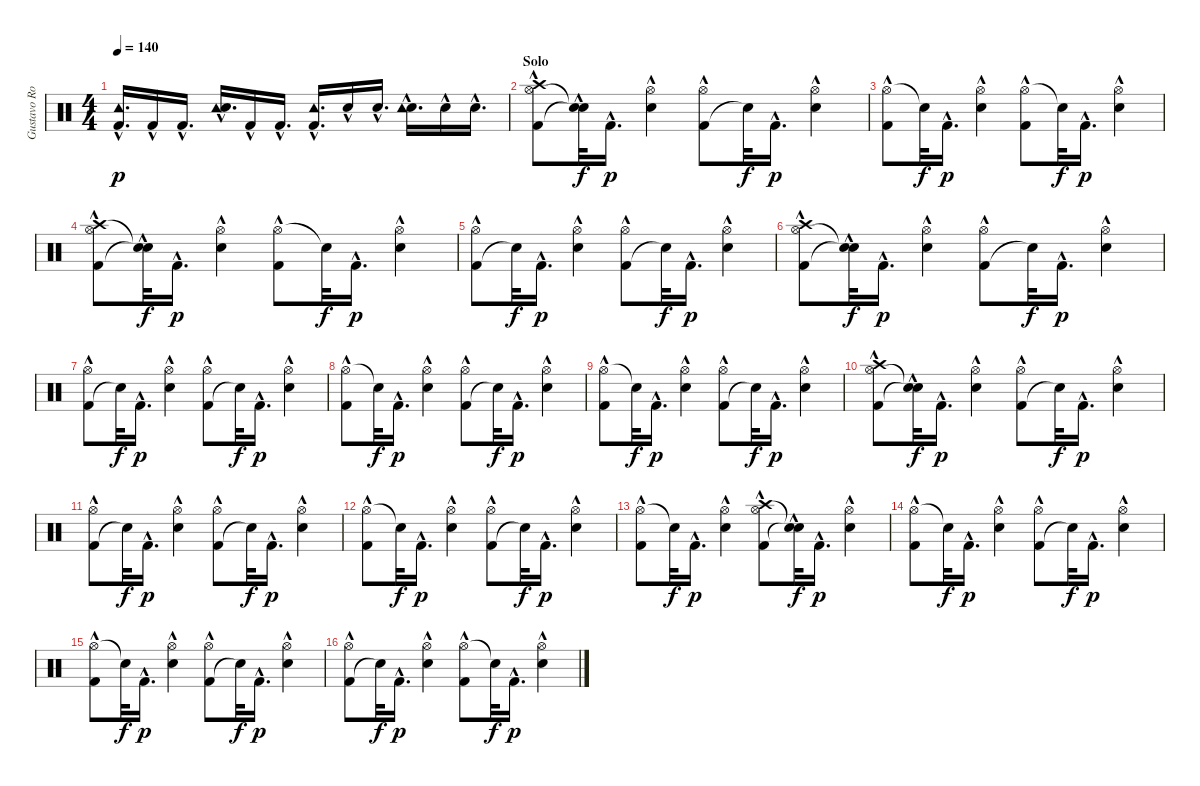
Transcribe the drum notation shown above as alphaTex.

\track ("Gustavo Rowek" "Gustavo Ro") {instrument percussion}
\staff {score}
\articulation defaults
\ts (4 4)
\tempo 140
\clef neutral
\ks c
("Tambourine (hit)" "Kick (hit) 2"{hac}).16{d dy p} "Kick (hit) 2"{hac}.16 "Kick (hit) 2"{hac}.16{d} ("Tambourine (hit)" "Snare (hit) 2"{hac}).16{d} "Kick (hit) 2"{hac}.16 "Kick (hit) 2"{hac}.16{d} ("Tambourine (hit)" "Kick (hit) 2"{hac}).16{d} "Snare (hit) 2"{hac}.16 "Snare (hit) 2"{hac}.16{d} ("Snare (hit) 2"{hac} "Tambourine (hit)").16{d} "Snare (hit) 2"{hac}.16 "Snare (hit) 2"{hac}.16{d} |
\section ("" "Solo")
("Hi-Hat (open)" "Kick (hit) 2"{hac} "Crash high (hit)").8 ("Snare (hit)"{t} "Snare (hit)"{hac t}).32{dy f} "Kick (hit) 2"{hac}.16{d dy p} ("Snare (hit) 2"{hac} "Hi-Hat (open)").4 ("Kick (hit) 2"{hac} "Hi-Hat (open)").8 "Snare (hit)"{t}.32{dy f} "Kick (hit) 2"{hac}.16{d dy p} ("Hi-Hat (open)" "Snare (hit) 2"{hac}).4 |
("Hi-Hat (open)" "Kick (hit) 2"{hac}).8 "Snare (hit)"{t}.32{dy f} "Kick (hit) 2"{hac}.16{d dy p} ("Snare (hit) 2"{hac} "Hi-Hat (open)").4 ("Hi-Hat (open)" "Kick (hit) 2"{hac}).8 "Snare (hit)"{t}.32{dy f} "Kick (hit) 2"{hac}.16{d dy p} ("Hi-Hat (open)" "Snare (hit) 2"{hac}).4 |
("Crash high (hit)" "Kick (hit) 2"{hac} "Hi-Hat (open)").8 ("Snare (hit)"{hac t} "Snare (hit)"{t}).32{dy f} "Kick (hit) 2"{hac}.16{d dy p} ("Snare (hit) 2"{hac} "Hi-Hat (open)").4 ("Hi-Hat (open)" "Kick (hit) 2"{hac}).8 "Snare (hit)"{t}.32{dy f} "Kick (hit) 2"{hac}.16{d dy p} ("Hi-Hat (open)" "Snare (hit) 2"{hac}).4 |
("Kick (hit) 2"{hac} "Hi-Hat (open)").8 "Snare (hit)"{t}.32{dy f} "Kick (hit) 2"{hac}.16{d dy p} ("Snare (hit) 2"{hac} "Hi-Hat (open)").4 ("Kick (hit) 2"{hac} "Hi-Hat (open)").8 "Snare (hit)"{t}.32{dy f} "Kick (hit) 2"{hac}.16{d dy p} ("Snare (hit) 2"{hac} "Hi-Hat (open)").4 |
("Kick (hit) 2"{hac} "Hi-Hat (open)" "Crash high (hit)").8 ("Snare (hit)"{t} "Snare (hit)"{hac t}).32{dy f} "Kick (hit) 2"{hac}.16{d dy p} ("Hi-Hat (open)" "Snare (hit) 2"{hac}).4 ("Kick (hit) 2"{hac} "Hi-Hat (open)").8 "Snare (hit)"{t}.32{dy f} "Kick (hit) 2"{hac}.16{d dy p} ("Snare (hit) 2"{hac} "Hi-Hat (open)").4 |
("Kick (hit) 2"{hac} "Hi-Hat (open)").8 "Snare (hit)"{t}.32{dy f} "Kick (hit) 2"{hac}.16{d dy p} ("Hi-Hat (open)" "Snare (hit) 2"{hac}).4 ("Kick (hit) 2"{hac} "Hi-Hat (open)").8 "Snare (hit)"{t}.32{dy f} "Kick (hit) 2"{hac}.16{d dy p} ("Hi-Hat (open)" "Snare (hit) 2"{hac}).4 |
("Hi-Hat (open)" "Kick (hit) 2"{hac}).8 "Snare (hit)"{t}.32{dy f} "Kick (hit) 2"{hac}.16{d dy p} ("Snare (hit) 2"{hac} "Hi-Hat (open)").4 ("Kick (hit) 2"{hac} "Hi-Hat (open)").8 "Snare (hit)"{t}.32{dy f} "Kick (hit) 2"{hac}.16{d dy p} ("Snare (hit) 2"{hac} "Hi-Hat (open)").4 |
("Hi-Hat (open)" "Kick (hit) 2"{hac}).8 "Snare (hit)"{t}.32{dy f} "Kick (hit) 2"{hac}.16{d dy p} ("Hi-Hat (open)" "Snare (hit) 2"{hac}).4 ("Kick (hit) 2"{hac} "Hi-Hat (open)").8 "Snare (hit)"{t}.32{dy f} "Kick (hit) 2"{hac}.16{d dy p} ("Hi-Hat (open)" "Snare (hit) 2"{hac}).4 |
("Hi-Hat (open)" "Kick (hit) 2"{hac} "Crash high (hit)").8 ("Snare (hit)"{t} "Snare (hit)"{hac t}).32{dy f} "Kick (hit) 2"{hac}.16{d dy p} ("Snare (hit) 2"{hac} "Hi-Hat (open)").4 ("Kick (hit) 2"{hac} "Hi-Hat (open)").8 "Snare (hit)"{t}.32{dy f} "Kick (hit) 2"{hac}.16{d dy p} ("Hi-Hat (open)" "Snare (hit) 2"{hac}).4 |
("Kick (hit) 2"{hac} "Hi-Hat (open)").8 "Snare (hit)"{t}.32{dy f} "Kick (hit) 2"{hac}.16{d dy p} ("Snare (hit) 2"{hac} "Hi-Hat (open)").4 ("Kick (hit) 2"{hac} "Hi-Hat (open)").8 "Snare (hit)"{t}.32{dy f} "Kick (hit) 2"{hac}.16{d dy p} ("Snare (hit) 2"{hac} "Hi-Hat (open)").4 |
("Hi-Hat (open)" "Kick (hit) 2"{hac}).8 "Snare (hit)"{t}.32{dy f} "Kick (hit) 2"{hac}.16{d dy p} ("Snare (hit) 2"{hac} "Hi-Hat (open)").4 ("Kick (hit) 2"{hac} "Hi-Hat (open)").8 "Snare (hit)"{t}.32{dy f} "Kick (hit) 2"{hac}.16{d dy p} ("Snare (hit) 2"{hac} "Hi-Hat (open)").4 |
("Hi-Hat (open)" "Kick (hit) 2"{hac}).8 "Snare (hit)"{t}.32{dy f} "Kick (hit) 2"{hac}.16{d dy p} ("Hi-Hat (open)" "Snare (hit) 2"{hac}).4 ("Crash high (hit)" "Kick (hit) 2"{hac} "Hi-Hat (open)").8 ("Snare (hit)"{hac t} "Snare (hit)"{t}).32{dy f} "Kick (hit) 2"{hac}.16{d dy p} ("Snare (hit) 2"{hac} "Hi-Hat (open)").4 |
("Hi-Hat (open)" "Kick (hit) 2"{hac}).8 "Snare (hit)"{t}.32{dy f} "Kick (hit) 2"{hac}.16{d dy p} ("Hi-Hat (open)" "Snare (hit) 2"{hac}).4 ("Kick (hit) 2"{hac} "Hi-Hat (open)").8 "Snare (hit)"{t}.32{dy f} "Kick (hit) 2"{hac}.16{d dy p} ("Snare (hit) 2"{hac} "Hi-Hat (open)").4 |
("Hi-Hat (open)" "Kick (hit) 2"{hac}).8 "Snare (hit)"{t}.32{dy f} "Kick (hit) 2"{hac}.16{d dy p} ("Hi-Hat (open)" "Snare (hit) 2"{hac}).4 ("Kick (hit) 2"{hac} "Hi-Hat (open)").8 "Snare (hit)"{t}.32{dy f} "Kick (hit) 2"{hac}.16{d dy p} ("Snare (hit) 2"{hac} "Hi-Hat (open)").4 |
("Kick (hit) 2"{hac} "Hi-Hat (open)").8 "Snare (hit)"{t}.32{dy f} "Kick (hit) 2"{hac}.16{d dy p} ("Hi-Hat (open)" "Snare (hit) 2"{hac}).4 ("Hi-Hat (open)" "Kick (hit) 2"{hac}).8 "Snare (hit)"{t}.32{dy f} "Kick (hit) 2"{hac}.16{d dy p} ("Hi-Hat (open)" "Snare (hit) 2"{hac}).4
